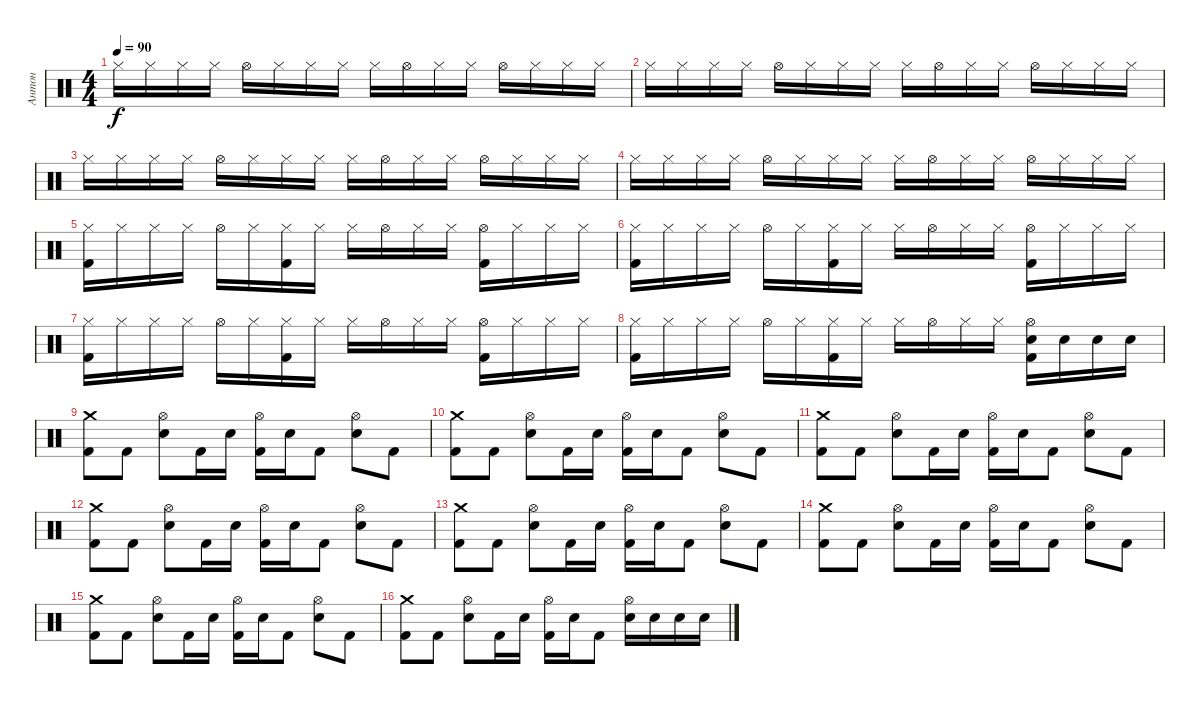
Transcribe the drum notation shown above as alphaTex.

\track ("Антон" "Антон") {instrument percussion}
\staff {score}
\articulation defaults
\ts (4 4)
\tempo 90
\clef neutral
\ks c "Hi-Hat (closed)".16{dy f} "Hi-Hat (closed)".16 "Hi-Hat (closed)".16 "Hi-Hat (closed)".16 "Hi-Hat (open)".16 "Hi-Hat (closed)".16 "Hi-Hat (closed)".16 "Hi-Hat (closed)".16 "Hi-Hat (closed)".16 "Hi-Hat (open)".16 "Hi-Hat (closed)".16 "Hi-Hat (closed)".16 "Hi-Hat (open)".16 "Hi-Hat (closed)".16 "Hi-Hat (closed)".16 "Hi-Hat (closed)".16
|
"Hi-Hat (closed)".16 "Hi-Hat (closed)".16 "Hi-Hat (closed)".16 "Hi-Hat (closed)".16 "Hi-Hat (open)".16 "Hi-Hat (closed)".16 "Hi-Hat (closed)".16 "Hi-Hat (closed)".16 "Hi-Hat (closed)".16 "Hi-Hat (open)".16 "Hi-Hat (closed)".16 "Hi-Hat (closed)".16 "Hi-Hat (open)".16 "Hi-Hat (closed)".16 "Hi-Hat (closed)".16 "Hi-Hat (closed)".16 |
"Hi-Hat (closed)".16 "Hi-Hat (closed)".16 "Hi-Hat (closed)".16 "Hi-Hat (closed)".16 "Hi-Hat (open)".16 "Hi-Hat (closed)".16 "Hi-Hat (closed)".16 "Hi-Hat (closed)".16 "Hi-Hat (closed)".16 "Hi-Hat (open)".16 "Hi-Hat (closed)".16 "Hi-Hat (closed)".16 "Hi-Hat (open)".16 "Hi-Hat (closed)".16 "Hi-Hat (closed)".16 "Hi-Hat (closed)".16 |
"Hi-Hat (closed)".16 "Hi-Hat (closed)".16 "Hi-Hat (closed)".16 "Hi-Hat (closed)".16 "Hi-Hat (open)".16 "Hi-Hat (closed)".16 "Hi-Hat (closed)".16 "Hi-Hat (closed)".16 "Hi-Hat (closed)".16 "Hi-Hat (open)".16 "Hi-Hat (closed)".16 "Hi-Hat (closed)".16 "Hi-Hat (open)".16 "Hi-Hat (closed)".16 "Hi-Hat (closed)".16 "Hi-Hat (closed)".16 |
("Hi-Hat (closed)" "Kick (hit) 2").16 "Hi-Hat (closed)".16 "Hi-Hat (closed)".16 "Hi-Hat (closed)".16 "Hi-Hat (open)".16 "Hi-Hat (closed)".16 ("Hi-Hat (closed)" "Kick (hit) 2").16 "Hi-Hat (closed)".16 "Hi-Hat (closed)".16 "Hi-Hat (open)".16 "Hi-Hat (closed)".16 "Hi-Hat (closed)".16 ("Hi-Hat (open)" "Kick (hit) 2").16 "Hi-Hat (closed)".16 "Hi-Hat (closed)".16 "Hi-Hat (closed)".16 |
("Hi-Hat (closed)" "Kick (hit) 2").16 "Hi-Hat (closed)".16 "Hi-Hat (closed)".16 "Hi-Hat (closed)".16 "Hi-Hat (open)".16 "Hi-Hat (closed)".16 ("Hi-Hat (closed)" "Kick (hit) 2").16 "Hi-Hat (closed)".16 "Hi-Hat (closed)".16 "Hi-Hat (open)".16 "Hi-Hat (closed)".16 "Hi-Hat (closed)".16 ("Hi-Hat (open)" "Kick (hit) 2").16 "Hi-Hat (closed)".16 "Hi-Hat (closed)".16 "Hi-Hat (closed)".16 |
("Hi-Hat (closed)" "Kick (hit) 2").16 "Hi-Hat (closed)".16 "Hi-Hat (closed)".16 "Hi-Hat (closed)".16 "Hi-Hat (open)".16 "Hi-Hat (closed)".16 ("Hi-Hat (closed)" "Kick (hit) 2").16 "Hi-Hat (closed)".16 "Hi-Hat (closed)".16 "Hi-Hat (open)".16 "Hi-Hat (closed)".16 "Hi-Hat (closed)".16 ("Hi-Hat (open)" "Kick (hit) 2").16 "Hi-Hat (closed)".16 "Hi-Hat (closed)".16 "Hi-Hat (closed)".16 |
("Hi-Hat (closed)" "Kick (hit) 2").16 "Hi-Hat (closed)".16 "Hi-Hat (closed)".16 "Hi-Hat (closed)".16 "Hi-Hat (open)".16 "Hi-Hat (closed)".16 ("Hi-Hat (closed)" "Kick (hit) 2").16 "Hi-Hat (closed)".16 "Hi-Hat (closed)".16 "Hi-Hat (open)".16 "Hi-Hat (closed)".16 "Hi-Hat (closed)".16 ("Hi-Hat (open)" "Electric Snare (hit)" "Kick (hit) 2").16 "Electric Snare (hit)".16 "Electric Snare (hit)".16 "Electric Snare (hit)".16 |
("Crash medium (hit)" "Kick (hit) 2").8 "Kick (hit) 2".8 ("Hi-Hat (open)" "Electric Snare (hit)").8 "Kick (hit) 2".16 "Electric Snare (hit)".16 ("Hi-Hat (open)" "Kick (hit) 2").16 "Electric Snare (hit)".16 "Kick (hit) 2".8 ("Hi-Hat (open)" "Electric Snare (hit)").8 "Kick (hit) 2".8 |
("Crash medium (hit)" "Kick (hit) 2").8 "Kick (hit) 2".8 ("Hi-Hat (open)" "Electric Snare (hit)").8 "Kick (hit) 2".16 "Electric Snare (hit)".16 ("Hi-Hat (open)" "Kick (hit) 2").16 "Electric Snare (hit)".16 "Kick (hit) 2".8 ("Hi-Hat (open)" "Electric Snare (hit)").8 "Kick (hit) 2".8 |
("Crash medium (hit)" "Kick (hit) 2").8 "Kick (hit) 2".8 ("Hi-Hat (open)" "Electric Snare (hit)").8 "Kick (hit) 2".16 "Electric Snare (hit)".16 ("Hi-Hat (open)" "Kick (hit) 2").16 "Electric Snare (hit)".16 "Kick (hit) 2".8 ("Hi-Hat (open)" "Electric Snare (hit)").8 "Kick (hit) 2".8 |
("Crash medium (hit)" "Kick (hit) 2").8 "Kick (hit) 2".8 ("Hi-Hat (open)" "Electric Snare (hit)").8 "Kick (hit) 2".16 "Electric Snare (hit)".16 ("Hi-Hat (open)" "Kick (hit) 2").16 "Electric Snare (hit)".16 "Kick (hit) 2".8 ("Hi-Hat (open)" "Electric Snare (hit)").8 "Kick (hit) 2".8 |
("Crash medium (hit)" "Kick (hit) 2").8 "Kick (hit) 2".8 ("Hi-Hat (open)" "Electric Snare (hit)").8 "Kick (hit) 2".16 "Electric Snare (hit)".16 ("Hi-Hat (open)" "Kick (hit) 2").16 "Electric Snare (hit)".16 "Kick (hit) 2".8 ("Hi-Hat (open)" "Electric Snare (hit)").8 "Kick (hit) 2".8 |
("Crash medium (hit)" "Kick (hit) 2").8 "Kick (hit) 2".8 ("Hi-Hat (open)" "Electric Snare (hit)").8 "Kick (hit) 2".16 "Electric Snare (hit)".16 ("Hi-Hat (open)" "Kick (hit) 2").16 "Electric Snare (hit)".16 "Kick (hit) 2".8 ("Hi-Hat (open)" "Electric Snare (hit)").8 "Kick (hit) 2".8 |
("Crash medium (hit)" "Kick (hit) 2").8 "Kick (hit) 2".8 ("Hi-Hat (open)" "Electric Snare (hit)").8 "Kick (hit) 2".16 "Electric Snare (hit)".16 ("Hi-Hat (open)" "Kick (hit) 2").16 "Electric Snare (hit)".16 "Kick (hit) 2".8 ("Hi-Hat (open)" "Electric Snare (hit)").8 "Kick (hit) 2".8 |
("Crash medium (hit)" "Kick (hit) 2").8 "Kick (hit) 2".8 ("Hi-Hat (open)" "Electric Snare (hit)").8 "Kick (hit) 2".16 "Electric Snare (hit)".16 ("Hi-Hat (open)" "Kick (hit) 2").16 "Electric Snare (hit)".16 "Kick (hit) 2".8 ("Hi-Hat (open)" "Electric Snare (hit)").16 "Electric Snare (hit)".16 "Electric Snare (hit)".16 "Electric Snare (hit)".16
